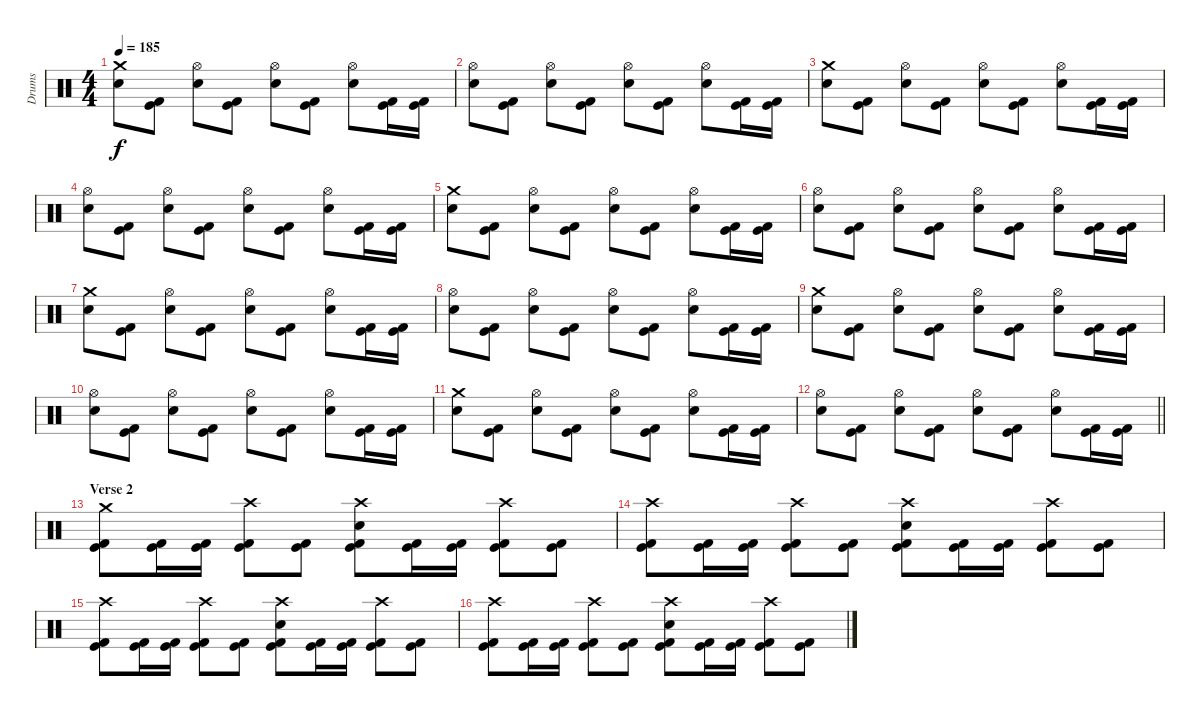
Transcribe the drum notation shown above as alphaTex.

\track ("Drums" "Drums") {instrument percussion}
\staff {score}
\articulation defaults
\ts (4 4)
\tempo 185
\clef neutral
\ks c
("Crash medium (hit)" "Electric Snare (hit)").8{dy f} ("Kick (hit) 2" "Kick (hit)").8 ("Hi-Hat (open)" "Electric Snare (hit)").8 ("Kick (hit) 2" "Kick (hit)").8 ("Hi-Hat (open)" "Electric Snare (hit)").8 ("Kick (hit) 2" "Kick (hit)").8 ("Hi-Hat (open)" "Electric Snare (hit)").8 ("Kick (hit) 2" "Kick (hit)").16 ("Kick (hit) 2" "Kick (hit)").16 |
("Hi-Hat (open)" "Electric Snare (hit)").8 ("Kick (hit) 2" "Kick (hit)").8 ("Hi-Hat (open)" "Electric Snare (hit)").8 ("Kick (hit) 2" "Kick (hit)").8 ("Hi-Hat (open)" "Electric Snare (hit)").8 ("Kick (hit) 2" "Kick (hit)").8 ("Hi-Hat (open)" "Electric Snare (hit)").8 ("Kick (hit) 2" "Kick (hit)").16 ("Kick (hit) 2" "Kick (hit)").16 |
("Crash medium (hit)" "Electric Snare (hit)").8 ("Kick (hit) 2" "Kick (hit)").8 ("Hi-Hat (open)" "Electric Snare (hit)").8 ("Kick (hit) 2" "Kick (hit)").8 ("Hi-Hat (open)" "Electric Snare (hit)").8 ("Kick (hit) 2" "Kick (hit)").8 ("Hi-Hat (open)" "Electric Snare (hit)").8 ("Kick (hit) 2" "Kick (hit)").16 ("Kick (hit) 2" "Kick (hit)").16 |
("Hi-Hat (open)" "Electric Snare (hit)").8 ("Kick (hit) 2" "Kick (hit)").8 ("Hi-Hat (open)" "Electric Snare (hit)").8 ("Kick (hit) 2" "Kick (hit)").8 ("Hi-Hat (open)" "Electric Snare (hit)").8 ("Kick (hit) 2" "Kick (hit)").8 ("Hi-Hat (open)" "Electric Snare (hit)").8 ("Kick (hit) 2" "Kick (hit)").16 ("Kick (hit) 2" "Kick (hit)").16 |
("Crash medium (hit)" "Electric Snare (hit)").8 ("Kick (hit) 2" "Kick (hit)").8 ("Hi-Hat (open)" "Electric Snare (hit)").8 ("Kick (hit) 2" "Kick (hit)").8 ("Hi-Hat (open)" "Electric Snare (hit)").8 ("Kick (hit) 2" "Kick (hit)").8 ("Hi-Hat (open)" "Electric Snare (hit)").8 ("Kick (hit) 2" "Kick (hit)").16 ("Kick (hit) 2" "Kick (hit)").16 |
("Hi-Hat (open)" "Electric Snare (hit)").8 ("Kick (hit) 2" "Kick (hit)").8 ("Hi-Hat (open)" "Electric Snare (hit)").8 ("Kick (hit) 2" "Kick (hit)").8 ("Hi-Hat (open)" "Electric Snare (hit)").8 ("Kick (hit) 2" "Kick (hit)").8 ("Hi-Hat (open)" "Electric Snare (hit)").8 ("Kick (hit) 2" "Kick (hit)").16 ("Kick (hit) 2" "Kick (hit)").16 |
("Crash medium (hit)" "Electric Snare (hit)").8 ("Kick (hit) 2" "Kick (hit)").8 ("Hi-Hat (open)" "Electric Snare (hit)").8 ("Kick (hit) 2" "Kick (hit)").8 ("Hi-Hat (open)" "Electric Snare (hit)").8 ("Kick (hit) 2" "Kick (hit)").8 ("Hi-Hat (open)" "Electric Snare (hit)").8 ("Kick (hit) 2" "Kick (hit)").16 ("Kick (hit) 2" "Kick (hit)").16 |
("Hi-Hat (open)" "Electric Snare (hit)").8 ("Kick (hit) 2" "Kick (hit)").8 ("Hi-Hat (open)" "Electric Snare (hit)").8 ("Kick (hit) 2" "Kick (hit)").8 ("Hi-Hat (open)" "Electric Snare (hit)").8 ("Kick (hit) 2" "Kick (hit)").8 ("Hi-Hat (open)" "Electric Snare (hit)").8 ("Kick (hit) 2" "Kick (hit)").16 ("Kick (hit) 2" "Kick (hit)").16 |
("Crash medium (hit)" "Electric Snare (hit)").8 ("Kick (hit) 2" "Kick (hit)").8 ("Hi-Hat (open)" "Electric Snare (hit)").8 ("Kick (hit) 2" "Kick (hit)").8 ("Hi-Hat (open)" "Electric Snare (hit)").8 ("Kick (hit) 2" "Kick (hit)").8 ("Hi-Hat (open)" "Electric Snare (hit)").8 ("Kick (hit) 2" "Kick (hit)").16 ("Kick (hit) 2" "Kick (hit)").16 |
("Hi-Hat (open)" "Electric Snare (hit)").8 ("Kick (hit) 2" "Kick (hit)").8 ("Hi-Hat (open)" "Electric Snare (hit)").8 ("Kick (hit) 2" "Kick (hit)").8 ("Hi-Hat (open)" "Electric Snare (hit)").8 ("Kick (hit) 2" "Kick (hit)").8 ("Hi-Hat (open)" "Electric Snare (hit)").8 ("Kick (hit) 2" "Kick (hit)").16 ("Kick (hit) 2" "Kick (hit)").16 |
("Crash medium (hit)" "Electric Snare (hit)").8 ("Kick (hit) 2" "Kick (hit)").8 ("Hi-Hat (open)" "Electric Snare (hit)").8 ("Kick (hit) 2" "Kick (hit)").8 ("Hi-Hat (open)" "Electric Snare (hit)").8 ("Kick (hit) 2" "Kick (hit)").8 ("Hi-Hat (open)" "Electric Snare (hit)").8 ("Kick (hit) 2" "Kick (hit)").16 ("Kick (hit) 2" "Kick (hit)").16 |
\barLineRight lightlight
("Hi-Hat (open)" "Electric Snare (hit)").8 ("Kick (hit) 2" "Kick (hit)").8 ("Hi-Hat (open)" "Electric Snare (hit)").8 ("Kick (hit) 2" "Kick (hit)").8 ("Hi-Hat (open)" "Electric Snare (hit)").8 ("Kick (hit) 2" "Kick (hit)").8 ("Hi-Hat (open)" "Electric Snare (hit)").8 ("Kick (hit) 2" "Kick (hit)").16 ("Kick (hit) 2" "Kick (hit)").16 |
\section ("" "Verse 2")
("Crash medium (hit)" "Kick (hit) 2" "Kick (hit)").8 ("Kick (hit) 2" "Kick (hit)").16 ("Kick (hit) 2" "Kick (hit)").16 ("Crash high (hit)" "Kick (hit) 2" "Kick (hit)").8 ("Kick (hit) 2" "Kick (hit)").8 ("Crash high (hit)" "Electric Snare (hit)" "Kick (hit) 2" "Kick (hit)").8 ("Kick (hit) 2" "Kick (hit)").16 ("Kick (hit) 2" "Kick (hit)").16 ("Crash high (hit)" "Kick (hit) 2" "Kick (hit)").8 ("Kick (hit) 2" "Kick (hit)").8 |
("Crash high (hit)" "Kick (hit) 2" "Kick (hit)").8 ("Kick (hit) 2" "Kick (hit)").16 ("Kick (hit) 2" "Kick (hit)").16 ("Crash high (hit)" "Kick (hit) 2" "Kick (hit)").8 ("Kick (hit) 2" "Kick (hit)").8 ("Crash high (hit)" "Electric Snare (hit)" "Kick (hit) 2" "Kick (hit)").8 ("Kick (hit) 2" "Kick (hit)").16 ("Kick (hit) 2" "Kick (hit)").16 ("Crash high (hit)" "Kick (hit) 2" "Kick (hit)").8 ("Kick (hit) 2" "Kick (hit)").8 |
("Crash high (hit)" "Kick (hit) 2" "Kick (hit)").8 ("Kick (hit) 2" "Kick (hit)").16 ("Kick (hit) 2" "Kick (hit)").16 ("Crash high (hit)" "Kick (hit) 2" "Kick (hit)").8 ("Kick (hit) 2" "Kick (hit)").8 ("Crash high (hit)" "Electric Snare (hit)" "Kick (hit) 2" "Kick (hit)").8 ("Kick (hit) 2" "Kick (hit)").16 ("Kick (hit) 2" "Kick (hit)").16 ("Crash high (hit)" "Kick (hit) 2" "Kick (hit)").8 ("Kick (hit) 2" "Kick (hit)").8 |
("Crash high (hit)" "Kick (hit) 2" "Kick (hit)").8 ("Kick (hit) 2" "Kick (hit)").16 ("Kick (hit) 2" "Kick (hit)").16 ("Crash high (hit)" "Kick (hit) 2" "Kick (hit)").8 ("Kick (hit) 2" "Kick (hit)").8 ("Crash high (hit)" "Electric Snare (hit)" "Kick (hit) 2" "Kick (hit)").8 ("Kick (hit) 2" "Kick (hit)").16 ("Kick (hit) 2" "Kick (hit)").16 ("Crash high (hit)" "Kick (hit) 2" "Kick (hit)").8 ("Kick (hit) 2" "Kick (hit)").8
